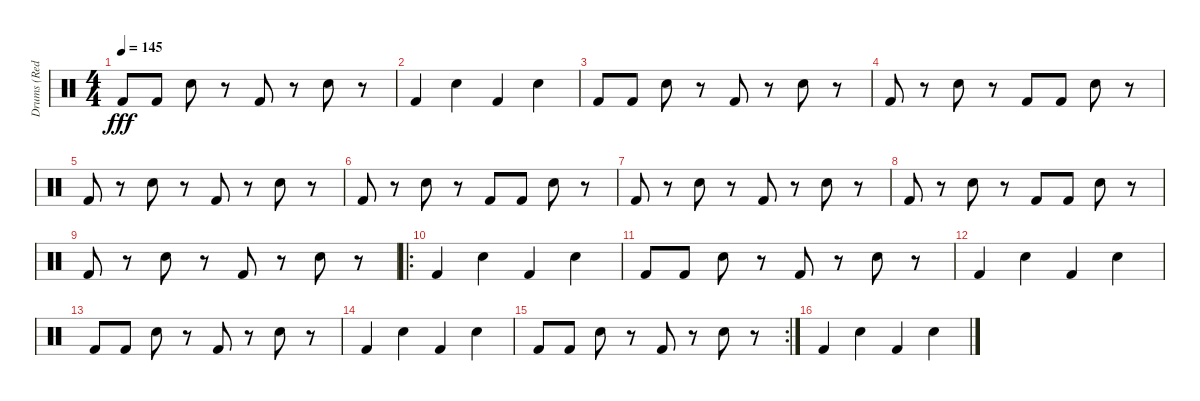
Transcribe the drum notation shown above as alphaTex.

\track ("Drums (Red)" "Drums (Red") {instrument percussion}
\staff {score}
\articulation defaults
\ts (4 4)
\tempo 145
\clef neutral
\ks c "Kick (hit) 2".8{dy fff} "Kick (hit) 2".8 "Electric Snare (hit)".8
r.8 "Kick (hit) 2".8 r.8 "Electric Snare (hit)".8 r.8 |
"Kick (hit) 2".4 "Electric Snare (hit)".4 "Kick (hit) 2".4 "Electric Snare (hit)".4 |
"Kick (hit) 2".8 "Kick (hit) 2".8 "Electric Snare (hit)".8 r.8 "Kick (hit) 2".8 r.8 "Electric Snare (hit)".8 r.8 |
"Kick (hit) 2".8 r.8 "Electric Snare (hit)".8 r.8 "Kick (hit) 2".8 "Kick (hit) 2".8 "Electric Snare (hit)".8 r.8 |
"Kick (hit) 2".8 r.8 "Electric Snare (hit)".8 r.8 "Kick (hit) 2".8 r.8 "Electric Snare (hit)".8 r.8 |
"Kick (hit) 2".8 r.8 "Electric Snare (hit)".8 r.8 "Kick (hit) 2".8 "Kick (hit) 2".8 "Electric Snare (hit)".8 r.8 |
"Kick (hit) 2".8 r.8 "Electric Snare (hit)".8 r.8 "Kick (hit) 2".8 r.8 "Electric Snare (hit)".8 r.8 |
"Kick (hit) 2".8 r.8 "Electric Snare (hit)".8 r.8 "Kick (hit) 2".8 "Kick (hit) 2".8 "Electric Snare (hit)".8 r.8 |
"Kick (hit) 2".8 r.8 "Electric Snare (hit)".8 r.8 "Kick (hit) 2".8 r.8 "Electric Snare (hit)".8 r.8 |
\ro "Kick (hit) 2".4{volume 16} "Electric Snare (hit)".4 "Kick (hit) 2".4 "Electric Snare (hit)".4
|
"Kick (hit) 2".8 "Kick (hit) 2".8 "Electric Snare (hit)".8 r.8 "Kick (hit) 2".8 r.8 "Electric Snare (hit)".8 r.8 |
"Kick (hit) 2".4 "Electric Snare (hit)".4 "Kick (hit) 2".4 "Electric Snare (hit)".4 |
"Kick (hit) 2".8 "Kick (hit) 2".8 "Electric Snare (hit)".8 r.8 "Kick (hit) 2".8 r.8 "Electric Snare (hit)".8 r.8 |
"Kick (hit) 2".4 "Electric Snare (hit)".4 "Kick (hit) 2".4 "Electric Snare (hit)".4 |
\rc 2 "Kick (hit) 2".8 "Kick (hit) 2".8 "Electric Snare (hit)".8
r.8 "Kick (hit) 2".8 r.8 "Electric Snare (hit)".8 r.8 |
"Kick (hit) 2".4{volume 8} "Electric Snare (hit)".4 "Kick (hit) 2".4 "Electric Snare (hit)".4
